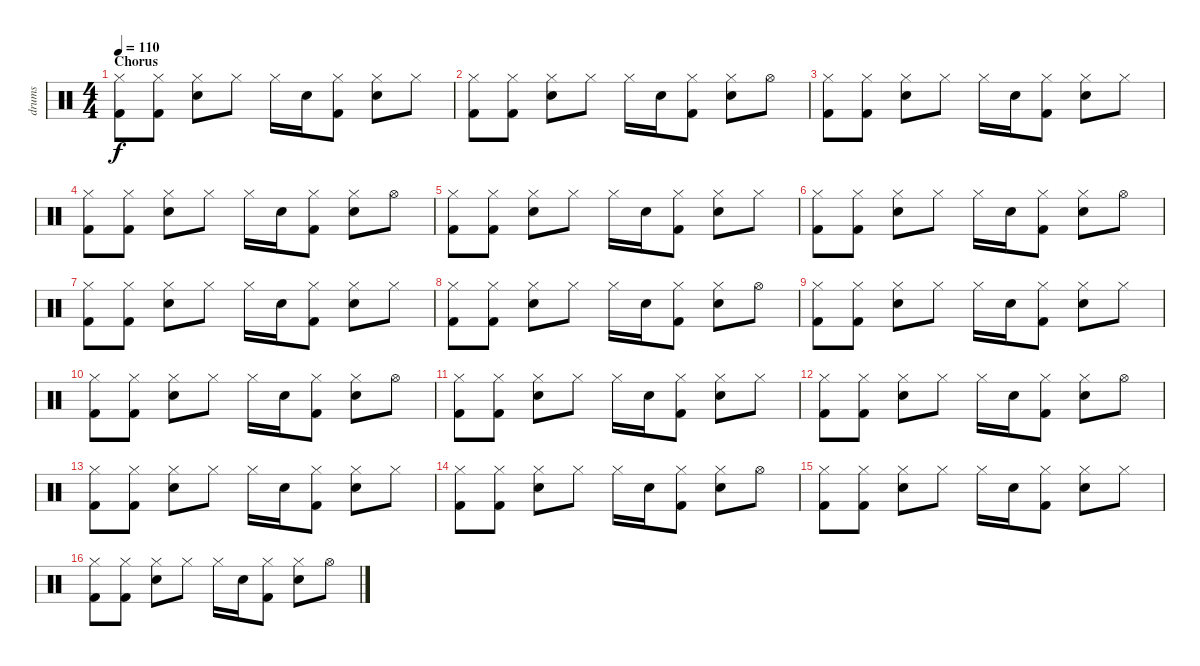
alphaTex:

\track ("drums" "drums") {instrument percussion}
\staff {score}
\articulation defaults
\ts (4 4)
\section ("" "Chorus")
\tempo 110
\clef neutral
\ks c
("Hi-Hat (closed)" "Kick (hit) 2").8{dy f} ("Hi-Hat (closed)" "Kick (hit) 2").8 ("Hi-Hat (closed)" "Electric Snare (hit)").8 "Hi-Hat (closed)".8 "Hi-Hat (closed)".16 "Electric Snare (hit)".16 ("Hi-Hat (closed)" "Kick (hit) 2").8 ("Hi-Hat (closed)" "Electric Snare (hit)").8 "Hi-Hat (closed)".8 |
("Hi-Hat (closed)" "Kick (hit) 2").8 ("Hi-Hat (closed)" "Kick (hit) 2").8 ("Hi-Hat (closed)" "Electric Snare (hit)").8 "Hi-Hat (closed)".8 "Hi-Hat (closed)".16 "Electric Snare (hit)".16 ("Hi-Hat (closed)" "Kick (hit) 2").8 ("Hi-Hat (closed)" "Electric Snare (hit)").8 "Hi-Hat (open)".8 |
("Hi-Hat (closed)" "Kick (hit) 2").8 ("Hi-Hat (closed)" "Kick (hit) 2").8 ("Hi-Hat (closed)" "Electric Snare (hit)").8 "Hi-Hat (closed)".8 "Hi-Hat (closed)".16 "Electric Snare (hit)".16 ("Hi-Hat (closed)" "Kick (hit) 2").8 ("Hi-Hat (closed)" "Electric Snare (hit)").8 "Hi-Hat (closed)".8 |
("Hi-Hat (closed)" "Kick (hit) 2").8 ("Hi-Hat (closed)" "Kick (hit) 2").8 ("Hi-Hat (closed)" "Electric Snare (hit)").8 "Hi-Hat (closed)".8 "Hi-Hat (closed)".16 "Electric Snare (hit)".16 ("Hi-Hat (closed)" "Kick (hit) 2").8 ("Hi-Hat (closed)" "Electric Snare (hit)").8 "Hi-Hat (open)".8 |
("Hi-Hat (closed)" "Kick (hit) 2").8 ("Hi-Hat (closed)" "Kick (hit) 2").8 ("Hi-Hat (closed)" "Electric Snare (hit)").8 "Hi-Hat (closed)".8 "Hi-Hat (closed)".16 "Electric Snare (hit)".16 ("Hi-Hat (closed)" "Kick (hit) 2").8 ("Hi-Hat (closed)" "Electric Snare (hit)").8 "Hi-Hat (closed)".8 |
("Hi-Hat (closed)" "Kick (hit) 2").8 ("Hi-Hat (closed)" "Kick (hit) 2").8 ("Hi-Hat (closed)" "Electric Snare (hit)").8 "Hi-Hat (closed)".8 "Hi-Hat (closed)".16 "Electric Snare (hit)".16 ("Hi-Hat (closed)" "Kick (hit) 2").8 ("Hi-Hat (closed)" "Electric Snare (hit)").8 "Hi-Hat (open)".8 |
("Hi-Hat (closed)" "Kick (hit) 2").8 ("Hi-Hat (closed)" "Kick (hit) 2").8 ("Hi-Hat (closed)" "Electric Snare (hit)").8 "Hi-Hat (closed)".8 "Hi-Hat (closed)".16 "Electric Snare (hit)".16 ("Hi-Hat (closed)" "Kick (hit) 2").8 ("Hi-Hat (closed)" "Electric Snare (hit)").8 "Hi-Hat (closed)".8 |
("Hi-Hat (closed)" "Kick (hit) 2").8 ("Hi-Hat (closed)" "Kick (hit) 2").8 ("Hi-Hat (closed)" "Electric Snare (hit)").8 "Hi-Hat (closed)".8 "Hi-Hat (closed)".16 "Electric Snare (hit)".16 ("Hi-Hat (closed)" "Kick (hit) 2").8 ("Hi-Hat (closed)" "Electric Snare (hit)").8 "Hi-Hat (open)".8 |
("Hi-Hat (closed)" "Kick (hit) 2").8 ("Hi-Hat (closed)" "Kick (hit) 2").8 ("Hi-Hat (closed)" "Electric Snare (hit)").8 "Hi-Hat (closed)".8 "Hi-Hat (closed)".16 "Electric Snare (hit)".16 ("Hi-Hat (closed)" "Kick (hit) 2").8 ("Hi-Hat (closed)" "Electric Snare (hit)").8 "Hi-Hat (closed)".8 |
("Hi-Hat (closed)" "Kick (hit) 2").8 ("Hi-Hat (closed)" "Kick (hit) 2").8 ("Hi-Hat (closed)" "Electric Snare (hit)").8 "Hi-Hat (closed)".8 "Hi-Hat (closed)".16 "Electric Snare (hit)".16 ("Hi-Hat (closed)" "Kick (hit) 2").8 ("Hi-Hat (closed)" "Electric Snare (hit)").8 "Hi-Hat (open)".8 |
("Hi-Hat (closed)" "Kick (hit) 2").8 ("Hi-Hat (closed)" "Kick (hit) 2").8 ("Hi-Hat (closed)" "Electric Snare (hit)").8 "Hi-Hat (closed)".8 "Hi-Hat (closed)".16 "Electric Snare (hit)".16 ("Hi-Hat (closed)" "Kick (hit) 2").8 ("Hi-Hat (closed)" "Electric Snare (hit)").8 "Hi-Hat (closed)".8 |
("Hi-Hat (closed)" "Kick (hit) 2").8 ("Hi-Hat (closed)" "Kick (hit) 2").8 ("Hi-Hat (closed)" "Electric Snare (hit)").8 "Hi-Hat (closed)".8 "Hi-Hat (closed)".16 "Electric Snare (hit)".16 ("Hi-Hat (closed)" "Kick (hit) 2").8 ("Hi-Hat (closed)" "Electric Snare (hit)").8 "Hi-Hat (open)".8 |
("Hi-Hat (closed)" "Kick (hit) 2").8 ("Hi-Hat (closed)" "Kick (hit) 2").8 ("Hi-Hat (closed)" "Electric Snare (hit)").8 "Hi-Hat (closed)".8 "Hi-Hat (closed)".16 "Electric Snare (hit)".16 ("Hi-Hat (closed)" "Kick (hit) 2").8 ("Hi-Hat (closed)" "Electric Snare (hit)").8 "Hi-Hat (closed)".8 |
("Hi-Hat (closed)" "Kick (hit) 2").8 ("Hi-Hat (closed)" "Kick (hit) 2").8 ("Hi-Hat (closed)" "Electric Snare (hit)").8 "Hi-Hat (closed)".8 "Hi-Hat (closed)".16 "Electric Snare (hit)".16 ("Hi-Hat (closed)" "Kick (hit) 2").8 ("Hi-Hat (closed)" "Electric Snare (hit)").8 "Hi-Hat (open)".8 |
("Hi-Hat (closed)" "Kick (hit) 2").8 ("Hi-Hat (closed)" "Kick (hit) 2").8 ("Hi-Hat (closed)" "Electric Snare (hit)").8 "Hi-Hat (closed)".8 "Hi-Hat (closed)".16 "Electric Snare (hit)".16 ("Hi-Hat (closed)" "Kick (hit) 2").8 ("Hi-Hat (closed)" "Electric Snare (hit)").8 "Hi-Hat (closed)".8 |
("Hi-Hat (closed)" "Kick (hit) 2").8 ("Hi-Hat (closed)" "Kick (hit) 2").8 ("Hi-Hat (closed)" "Electric Snare (hit)").8 "Hi-Hat (closed)".8 "Hi-Hat (closed)".16 "Electric Snare (hit)".16 ("Hi-Hat (closed)" "Kick (hit) 2").8 ("Hi-Hat (closed)" "Electric Snare (hit)").8 "Hi-Hat (open)".8
